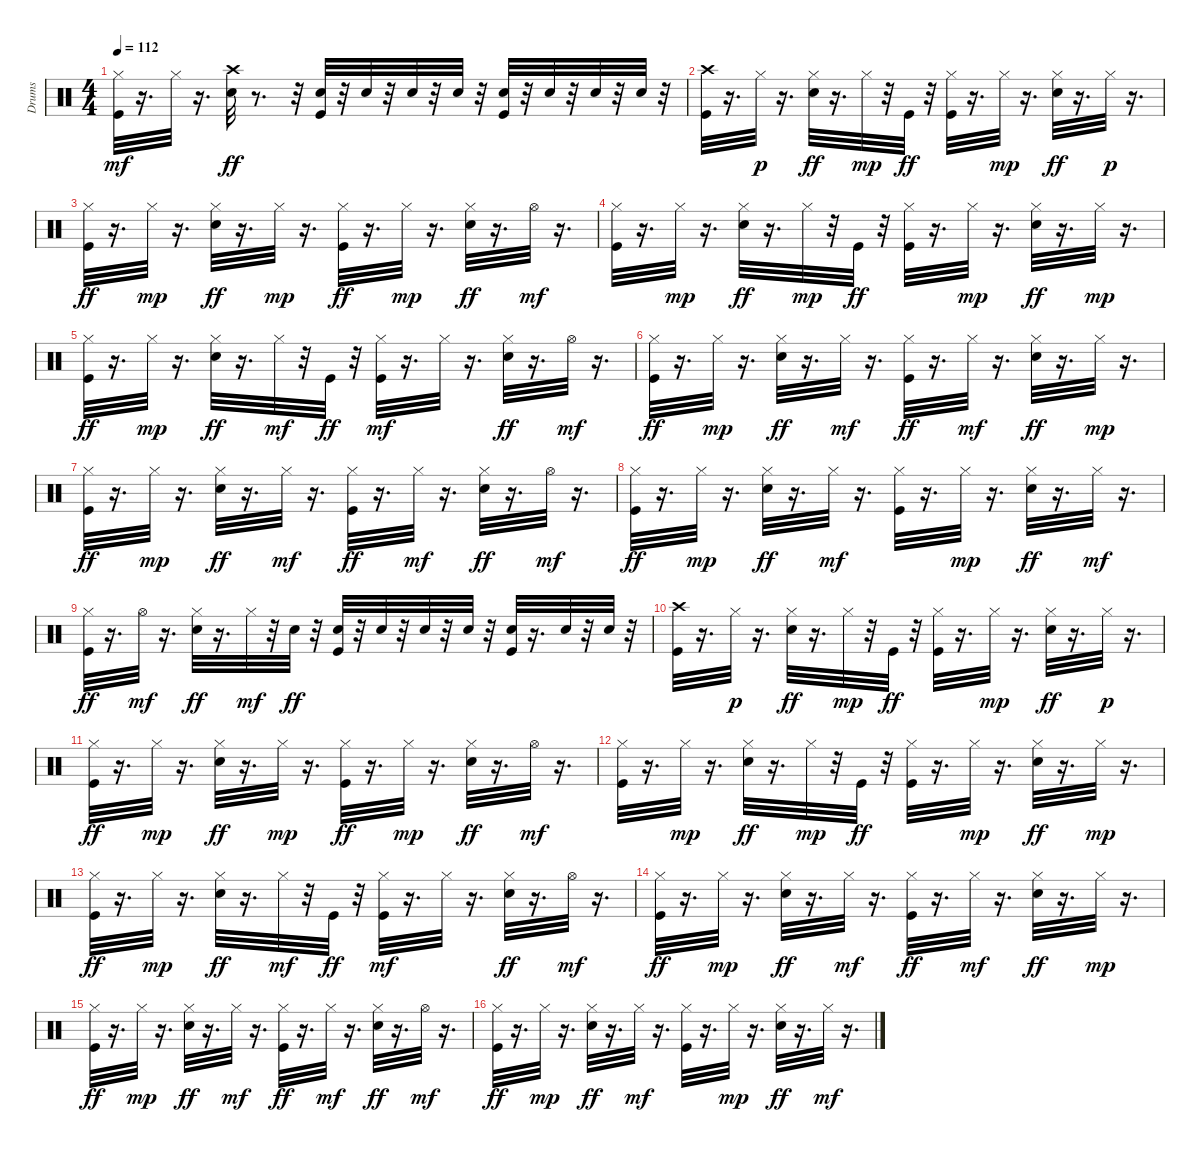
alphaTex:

\track ("Drums" "Drums") {instrument percussion}
\staff {score}
\articulation defaults
\ts (4 4)
\tempo 112
\clef neutral
\ks c
("Kick (hit)" "Hi-Hat (closed)").32{dy mf} r.16{d} "Hi-Hat (closed)".32 r.16{d} ("Crash high (hit)" "Electric Snare (hit)").32{dy ff} r.8{d} r.32 ("Kick (hit)" "Electric Snare (hit)").32 r.32 "Electric Snare (hit)".32 r.32 "Electric Snare (hit)".32 r.32 "Electric Snare (hit)".32 r.32 ("Kick (hit)" "Electric Snare (hit)").32 r.32 "Electric Snare (hit)".32 r.32 "Electric Snare (hit)".32 r.32 "Electric Snare (hit)".32 r.32 |
("Kick (hit)" "Crash high (hit)").32 r.16{d} "Hi-Hat (closed)".32{dy p} r.16{d} ("Hi-Hat (closed)" "Electric Snare (hit)").32{dy ff} r.16{d} "Hi-Hat (closed)".32{dy mp} r.32 "Kick (hit)".32{dy ff} r.32 ("Kick (hit)" "Hi-Hat (closed)").32 r.16{d} "Hi-Hat (closed)".32{dy mp} r.16{d} ("Hi-Hat (closed)" "Electric Snare (hit)").32{dy ff} r.16{d} "Hi-Hat (closed)".32{dy p} r.16{d} |
("Hi-Hat (closed)" "Kick (hit)").32{dy ff} r.16{d} "Hi-Hat (closed)".32{dy mp} r.16{d} ("Hi-Hat (closed)" "Electric Snare (hit)").32{dy ff} r.16{d} "Hi-Hat (closed)".32{dy mp} r.16{d} ("Hi-Hat (closed)" "Kick (hit)").32{dy ff} r.16{d} "Hi-Hat (closed)".32{dy mp} r.16{d} ("Hi-Hat (closed)" "Electric Snare (hit)").32{dy ff} r.16{d} "Hi-Hat (open)".32{dy mf} r.16{d} |
("Kick (hit)" "Hi-Hat (closed)").32 r.16{d} "Hi-Hat (closed)".32{dy mp} r.16{d} ("Electric Snare (hit)" "Hi-Hat (closed)").32{dy ff} r.16{d} "Hi-Hat (closed)".32{dy mp} r.32 "Kick (hit)".32{dy ff} r.32 ("Hi-Hat (closed)" "Kick (hit)").32 r.16{d} "Hi-Hat (closed)".32{dy mp} r.16{d} ("Electric Snare (hit)" "Hi-Hat (closed)").32{dy ff} r.16{d} "Hi-Hat (closed)".32{dy mp} r.16{d} |
("Hi-Hat (closed)" "Kick (hit)").32{dy ff} r.16{d} "Hi-Hat (closed)".32{dy mp} r.16{d} ("Hi-Hat (closed)" "Electric Snare (hit)").32{dy ff} r.16{d} "Hi-Hat (closed)".32{dy mf} r.32 "Kick (hit)".32{dy ff} r.32 ("Kick (hit)" "Hi-Hat (closed)").32{dy mf} r.16{d} "Hi-Hat (closed)".32 r.16{d} ("Electric Snare (hit)" "Hi-Hat (closed)").32{dy ff} r.16{d} "Hi-Hat (open)".32{dy mf} r.16{d} |
("Hi-Hat (closed)" "Kick (hit)").32{dy ff} r.16{d} "Hi-Hat (closed)".32{dy mp} r.16{d} ("Hi-Hat (closed)" "Electric Snare (hit)").32{dy ff} r.16{d} "Hi-Hat (closed)".32{dy mf} r.16{d} ("Hi-Hat (closed)" "Kick (hit)").32{dy ff} r.16{d} "Hi-Hat (closed)".32{dy mf} r.16{d} ("Hi-Hat (closed)" "Electric Snare (hit)").32{dy ff} r.16{d} "Hi-Hat (closed)".32{dy mp} r.16{d} |
("Hi-Hat (closed)" "Kick (hit)").32{dy ff} r.16{d} "Hi-Hat (closed)".32{dy mp} r.16{d} ("Hi-Hat (closed)" "Electric Snare (hit)").32{dy ff} r.16{d} "Hi-Hat (closed)".32{dy mf} r.16{d} ("Hi-Hat (closed)" "Kick (hit)").32{dy ff} r.16{d} "Hi-Hat (closed)".32{dy mf} r.16{d} ("Hi-Hat (closed)" "Electric Snare (hit)").32{dy ff} r.16{d} "Hi-Hat (open)".32{dy mf} r.16{d} |
("Hi-Hat (closed)" "Kick (hit)").32{dy ff} r.16{d} "Hi-Hat (closed)".32{dy mp} r.16{d} ("Electric Snare (hit)" "Hi-Hat (closed)").32{dy ff} r.16{d} "Hi-Hat (closed)".32{dy mf} r.16{d} ("Kick (hit)" "Hi-Hat (closed)").32 r.16{d} "Hi-Hat (closed)".32{dy mp} r.16{d} ("Hi-Hat (closed)" "Electric Snare (hit)").32{dy ff} r.16{d} "Hi-Hat (closed)".32{dy mf} r.16{d} |
("Hi-Hat (closed)" "Kick (hit)").32{dy ff} r.16{d} "Hi-Hat (open)".32{dy mf} r.16{d} ("Hi-Hat (closed)" "Electric Snare (hit)").32{dy ff} r.16{d} "Hi-Hat (closed)".32{dy mf} r.32 "Electric Snare (hit)".32{dy ff} r.32 ("Kick (hit)" "Electric Snare (hit)").32 r.32 "Electric Snare (hit)".32 r.32 "Electric Snare (hit)".32 r.32 "Electric Snare (hit)".32 r.32 ("Kick (hit)" "Electric Snare (hit)").32 r.16{d} "Electric Snare (hit)".32 r.32 "Electric Snare (hit)".32 r.32 |
("Kick (hit)" "Crash high (hit)").32 r.16{d} "Hi-Hat (closed)".32{dy p} r.16{d} ("Hi-Hat (closed)" "Electric Snare (hit)").32{dy ff} r.16{d} "Hi-Hat (closed)".32{dy mp} r.32 "Kick (hit)".32{dy ff} r.32 ("Kick (hit)" "Hi-Hat (closed)").32 r.16{d} "Hi-Hat (closed)".32{dy mp} r.16{d} ("Hi-Hat (closed)" "Electric Snare (hit)").32{dy ff} r.16{d} "Hi-Hat (closed)".32{dy p} r.16{d} |
("Hi-Hat (closed)" "Kick (hit)").32{dy ff} r.16{d} "Hi-Hat (closed)".32{dy mp} r.16{d} ("Hi-Hat (closed)" "Electric Snare (hit)").32{dy ff} r.16{d} "Hi-Hat (closed)".32{dy mp} r.16{d} ("Hi-Hat (closed)" "Kick (hit)").32{dy ff} r.16{d} "Hi-Hat (closed)".32{dy mp} r.16{d} ("Hi-Hat (closed)" "Electric Snare (hit)").32{dy ff} r.16{d} "Hi-Hat (open)".32{dy mf} r.16{d} |
("Kick (hit)" "Hi-Hat (closed)").32 r.16{d} "Hi-Hat (closed)".32{dy mp} r.16{d} ("Electric Snare (hit)" "Hi-Hat (closed)").32{dy ff} r.16{d} "Hi-Hat (closed)".32{dy mp} r.32 "Kick (hit)".32{dy ff} r.32 ("Hi-Hat (closed)" "Kick (hit)").32 r.16{d} "Hi-Hat (closed)".32{dy mp} r.16{d} ("Electric Snare (hit)" "Hi-Hat (closed)").32{dy ff} r.16{d} "Hi-Hat (closed)".32{dy mp} r.16{d} |
("Hi-Hat (closed)" "Kick (hit)").32{dy ff} r.16{d} "Hi-Hat (closed)".32{dy mp} r.16{d} ("Hi-Hat (closed)" "Electric Snare (hit)").32{dy ff} r.16{d} "Hi-Hat (closed)".32{dy mf} r.32 "Kick (hit)".32{dy ff} r.32 ("Kick (hit)" "Hi-Hat (closed)").32{dy mf} r.16{d} "Hi-Hat (closed)".32 r.16{d} ("Electric Snare (hit)" "Hi-Hat (closed)").32{dy ff} r.16{d} "Hi-Hat (open)".32{dy mf} r.16{d} |
("Hi-Hat (closed)" "Kick (hit)").32{dy ff} r.16{d} "Hi-Hat (closed)".32{dy mp} r.16{d} ("Hi-Hat (closed)" "Electric Snare (hit)").32{dy ff} r.16{d} "Hi-Hat (closed)".32{dy mf} r.16{d} ("Hi-Hat (closed)" "Kick (hit)").32{dy ff} r.16{d} "Hi-Hat (closed)".32{dy mf} r.16{d} ("Hi-Hat (closed)" "Electric Snare (hit)").32{dy ff} r.16{d} "Hi-Hat (closed)".32{dy mp} r.16{d} |
("Hi-Hat (closed)" "Kick (hit)").32{dy ff} r.16{d} "Hi-Hat (closed)".32{dy mp} r.16{d} ("Hi-Hat (closed)" "Electric Snare (hit)").32{dy ff} r.16{d} "Hi-Hat (closed)".32{dy mf} r.16{d} ("Hi-Hat (closed)" "Kick (hit)").32{dy ff} r.16{d} "Hi-Hat (closed)".32{dy mf} r.16{d} ("Hi-Hat (closed)" "Electric Snare (hit)").32{dy ff} r.16{d} "Hi-Hat (open)".32{dy mf} r.16{d} |
("Hi-Hat (closed)" "Kick (hit)").32{dy ff} r.16{d} "Hi-Hat (closed)".32{dy mp} r.16{d} ("Electric Snare (hit)" "Hi-Hat (closed)").32{dy ff} r.16{d} "Hi-Hat (closed)".32{dy mf} r.16{d} ("Kick (hit)" "Hi-Hat (closed)").32 r.16{d} "Hi-Hat (closed)".32{dy mp} r.16{d} ("Hi-Hat (closed)" "Electric Snare (hit)").32{dy ff} r.16{d} "Hi-Hat (closed)".32{dy mf} r.16{d}
